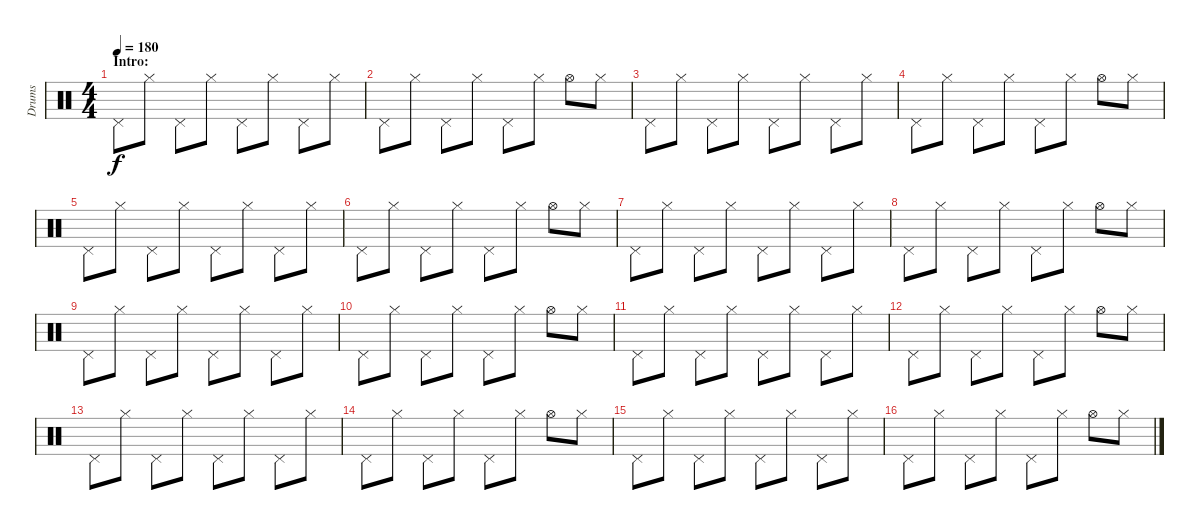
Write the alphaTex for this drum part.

\track ("Drums" "Drums") {instrument percussion}
\staff {score}
\articulation defaults
\ts (4 4)
\section ("" "Intro:")
\tempo 180
\tempo 160
\tempo 180
\clef neutral
\ks c "Pedal Hi-Hat (hit)".8{dy f} "Hi-Hat (closed)".8 "Pedal Hi-Hat (hit)".8 "Hi-Hat (closed)".8 "Pedal Hi-Hat (hit)".8 "Hi-Hat (closed)".8 "Pedal Hi-Hat (hit)".8 "Hi-Hat (closed)".8
|
"Pedal Hi-Hat (hit)".8 "Hi-Hat (closed)".8 "Pedal Hi-Hat (hit)".8 "Hi-Hat (closed)".8 "Pedal Hi-Hat (hit)".8 "Hi-Hat (closed)".8 "Hi-Hat (open)".8 "Hi-Hat (closed)".8 |
"Pedal Hi-Hat (hit)".8 "Hi-Hat (closed)".8 "Pedal Hi-Hat (hit)".8 "Hi-Hat (closed)".8 "Pedal Hi-Hat (hit)".8 "Hi-Hat (closed)".8 "Pedal Hi-Hat (hit)".8 "Hi-Hat (closed)".8 |
"Pedal Hi-Hat (hit)".8 "Hi-Hat (closed)".8 "Pedal Hi-Hat (hit)".8 "Hi-Hat (closed)".8 "Pedal Hi-Hat (hit)".8 "Hi-Hat (closed)".8 "Hi-Hat (open)".8 "Hi-Hat (closed)".8 |
"Pedal Hi-Hat (hit)".8 "Hi-Hat (closed)".8 "Pedal Hi-Hat (hit)".8 "Hi-Hat (closed)".8 "Pedal Hi-Hat (hit)".8 "Hi-Hat (closed)".8 "Pedal Hi-Hat (hit)".8 "Hi-Hat (closed)".8 |
"Pedal Hi-Hat (hit)".8 "Hi-Hat (closed)".8 "Pedal Hi-Hat (hit)".8 "Hi-Hat (closed)".8 "Pedal Hi-Hat (hit)".8 "Hi-Hat (closed)".8 "Hi-Hat (open)".8 "Hi-Hat (closed)".8 |
"Pedal Hi-Hat (hit)".8 "Hi-Hat (closed)".8 "Pedal Hi-Hat (hit)".8 "Hi-Hat (closed)".8 "Pedal Hi-Hat (hit)".8 "Hi-Hat (closed)".8 "Pedal Hi-Hat (hit)".8 "Hi-Hat (closed)".8 |
"Pedal Hi-Hat (hit)".8 "Hi-Hat (closed)".8 "Pedal Hi-Hat (hit)".8 "Hi-Hat (closed)".8 "Pedal Hi-Hat (hit)".8 "Hi-Hat (closed)".8 "Hi-Hat (open)".8 "Hi-Hat (closed)".8 |
"Pedal Hi-Hat (hit)".8 "Hi-Hat (closed)".8 "Pedal Hi-Hat (hit)".8 "Hi-Hat (closed)".8 "Pedal Hi-Hat (hit)".8 "Hi-Hat (closed)".8 "Pedal Hi-Hat (hit)".8 "Hi-Hat (closed)".8 |
"Pedal Hi-Hat (hit)".8 "Hi-Hat (closed)".8 "Pedal Hi-Hat (hit)".8 "Hi-Hat (closed)".8 "Pedal Hi-Hat (hit)".8 "Hi-Hat (closed)".8 "Hi-Hat (open)".8 "Hi-Hat (closed)".8 |
"Pedal Hi-Hat (hit)".8 "Hi-Hat (closed)".8 "Pedal Hi-Hat (hit)".8 "Hi-Hat (closed)".8 "Pedal Hi-Hat (hit)".8 "Hi-Hat (closed)".8 "Pedal Hi-Hat (hit)".8 "Hi-Hat (closed)".8 |
"Pedal Hi-Hat (hit)".8 "Hi-Hat (closed)".8 "Pedal Hi-Hat (hit)".8 "Hi-Hat (closed)".8 "Pedal Hi-Hat (hit)".8 "Hi-Hat (closed)".8 "Hi-Hat (open)".8 "Hi-Hat (closed)".8 |
"Pedal Hi-Hat (hit)".8 "Hi-Hat (closed)".8 "Pedal Hi-Hat (hit)".8 "Hi-Hat (closed)".8 "Pedal Hi-Hat (hit)".8 "Hi-Hat (closed)".8 "Pedal Hi-Hat (hit)".8 "Hi-Hat (closed)".8 |
"Pedal Hi-Hat (hit)".8 "Hi-Hat (closed)".8 "Pedal Hi-Hat (hit)".8 "Hi-Hat (closed)".8 "Pedal Hi-Hat (hit)".8 "Hi-Hat (closed)".8 "Hi-Hat (open)".8 "Hi-Hat (closed)".8 |
"Pedal Hi-Hat (hit)".8 "Hi-Hat (closed)".8 "Pedal Hi-Hat (hit)".8 "Hi-Hat (closed)".8 "Pedal Hi-Hat (hit)".8 "Hi-Hat (closed)".8 "Pedal Hi-Hat (hit)".8 "Hi-Hat (closed)".8 |
"Pedal Hi-Hat (hit)".8 "Hi-Hat (closed)".8 "Pedal Hi-Hat (hit)".8 "Hi-Hat (closed)".8 "Pedal Hi-Hat (hit)".8 "Hi-Hat (closed)".8 "Hi-Hat (open)".8 "Hi-Hat (closed)".8
